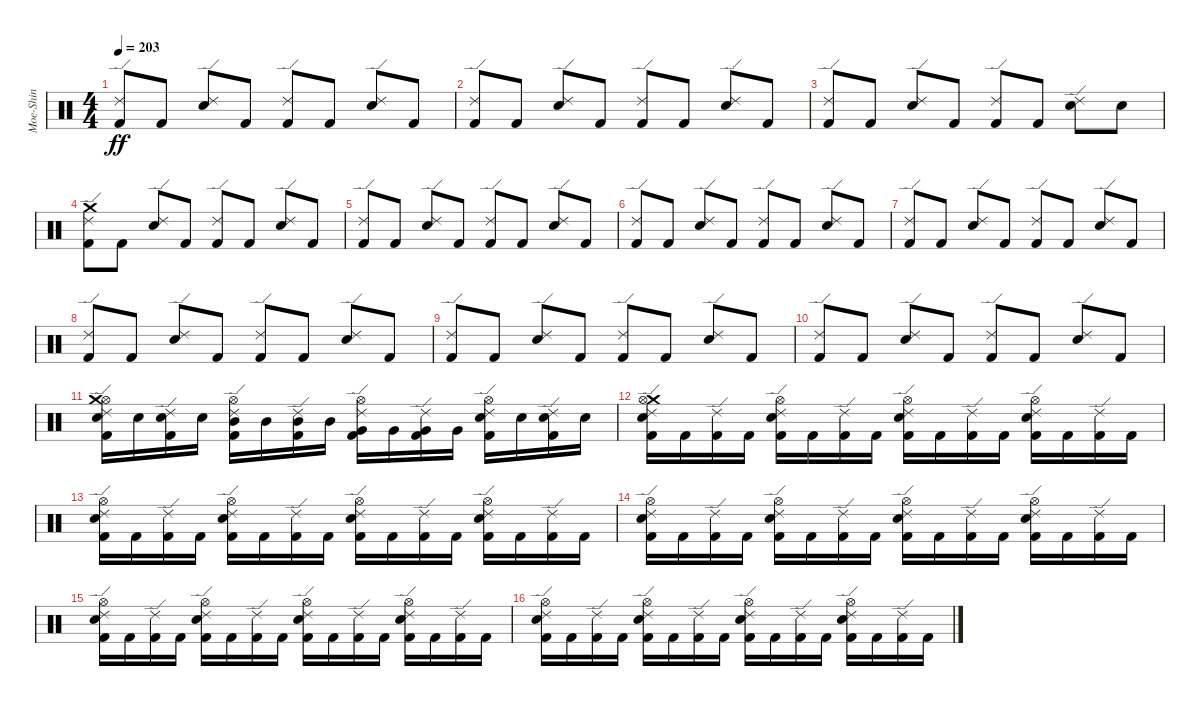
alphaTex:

\track ("Moe-Shin" "Moe-Shin") {instrument percussion}
\staff {score}
\articulation defaults
\ts (4 4)
\tempo 203
\clef neutral
\ks c
("Ride (edge) 2" "Kick (hit) 2").8{dy ff} "Kick (hit) 2".8 ("Ride (edge) 2" "Snare (hit) 2").8 "Kick (hit) 2".8 ("Ride (edge) 2" "Kick (hit) 2").8 "Kick (hit) 2".8 ("Snare (hit) 2" "Ride (edge) 2").8 "Kick (hit) 2".8 |
("Ride (edge) 2" "Kick (hit) 2").8 "Kick (hit) 2".8 ("Ride (edge) 2" "Snare (hit) 2").8 "Kick (hit) 2".8 ("Kick (hit) 2" "Ride (edge) 2").8 "Kick (hit) 2".8 ("Snare (hit) 2" "Ride (edge) 2").8 "Kick (hit) 2".8 |
("Ride (edge) 2" "Kick (hit) 2").8 "Kick (hit) 2".8 ("Snare (hit) 2" "Ride (edge) 2").8 "Kick (hit) 2".8 ("Ride (edge) 2" "Kick (hit) 2").8 "Kick (hit) 2".8 ("Snare (hit) 2" "Ride (edge) 2").8 "Snare (hit) 2".8 |
("Ride (edge) 2" "Crash medium (hit)" "Kick (hit) 2").8 "Kick (hit) 2".8 ("Ride (edge) 2" "Snare (hit) 2").8 "Kick (hit) 2".8 ("Ride (edge) 2" "Kick (hit) 2").8 "Kick (hit) 2".8 ("Snare (hit) 2" "Ride (edge) 2").8 "Kick (hit) 2".8 |
("Ride (edge) 2" "Kick (hit) 2").8 "Kick (hit) 2".8 ("Ride (edge) 2" "Snare (hit) 2").8 "Kick (hit) 2".8 ("Ride (edge) 2" "Kick (hit) 2").8 "Kick (hit) 2".8 ("Snare (hit) 2" "Ride (edge) 2").8 "Kick (hit) 2".8 |
("Ride (edge) 2" "Kick (hit) 2").8 "Kick (hit) 2".8 ("Snare (hit) 2" "Ride (edge) 2").8 "Kick (hit) 2".8 ("Kick (hit) 2" "Ride (edge) 2").8 "Kick (hit) 2".8 ("Ride (edge) 2" "Snare (hit) 2").8 "Kick (hit) 2".8 |
("Ride (edge) 2" "Kick (hit) 2").8 "Kick (hit) 2".8 ("Ride (edge) 2" "Snare (hit) 2").8 "Kick (hit) 2".8 ("Kick (hit) 2" "Ride (edge) 2").8 "Kick (hit) 2".8 ("Ride (edge) 2" "Snare (hit) 2").8 "Kick (hit) 2".8 |
("Kick (hit) 2" "Ride (edge) 2").8 "Kick (hit) 2".8 ("Ride (edge) 2" "Snare (hit) 2").8 "Kick (hit) 2".8 ("Kick (hit) 2" "Ride (edge) 2").8 "Kick (hit) 2".8 ("Snare (hit) 2" "Ride (edge) 2").8 "Kick (hit) 2".8 |
("Ride (edge) 2" "Kick (hit) 2").8 "Kick (hit) 2".8 ("Snare (hit) 2" "Ride (edge) 2").8 "Kick (hit) 2".8 ("Kick (hit) 2" "Ride (edge) 2").8 "Kick (hit) 2".8 ("Ride (edge) 2" "Snare (hit) 2").8 "Kick (hit) 2".8 |
("Ride (edge) 2" "Kick (hit) 2").8 "Kick (hit) 2".8 ("Snare (hit) 2" "Ride (edge) 2").8 "Kick (hit) 2".8 ("Ride (edge) 2" "Kick (hit) 2").8 "Kick (hit) 2".8 ("Snare (hit) 2" "Ride (edge) 2").8 "Kick (hit) 2".8 |
("Snare (hit) 2" "Hi-Hat (open)" "Ride (edge) 2" "Kick (hit) 2" "Crash medium (hit)").16 "Snare (hit) 2".16 ("Snare (hit) 2" "Kick (hit) 2" "Ride (edge) 2").16 "Snare (hit) 2".16 ("Kick (hit) 2" "Hi-Hat (open)" "Ride (edge) 2" "Mid Tom (hit)").16 "Mid Tom (hit)".16 ("Kick (hit) 2" "Mid Tom (hit)" "Ride (edge) 2").16 "Mid Tom (hit)".16 ("Hi-Hat (open)" "Kick (hit) 2" "Ride (edge) 2" "Very Low Tom (hit)").16 "Very Low Tom (hit)".16 ("Very Low Tom (hit)" "Ride (edge) 2" "Kick (hit) 2").16 "Very Low Tom (hit)".16 ("Snare (hit) 2" "Ride (edge) 2" "Kick (hit) 2" "Hi-Hat (open)").16 "Snare (hit) 2".16 ("Kick (hit) 2" "Snare (hit) 2" "Ride (edge) 2").16 "Snare (hit) 2".16 |
("Kick (hit) 2" "Crash medium (hit)" "Ride (edge) 2" "Snare (hit) 2" "Hi-Hat (open)").16 "Kick (hit) 2".16 ("Kick (hit) 2" "Ride (edge) 2").16 "Kick (hit) 2".16 ("Snare (hit) 2" "Ride (edge) 2" "Kick (hit) 2" "Hi-Hat (open)").16 "Kick (hit) 2".16 ("Ride (edge) 2" "Kick (hit) 2").16 "Kick (hit) 2".16 ("Snare (hit) 2" "Hi-Hat (open)" "Ride (edge) 2" "Kick (hit) 2").16 "Kick (hit) 2".16 ("Kick (hit) 2" "Ride (edge) 2").16 "Kick (hit) 2".16 ("Kick (hit) 2" "Hi-Hat (open)" "Ride (edge) 2" "Snare (hit) 2").16 "Kick (hit) 2".16 ("Ride (edge) 2" "Kick (hit) 2").16 "Kick (hit) 2".16 |
("Hi-Hat (open)" "Kick (hit) 2" "Snare (hit) 2" "Ride (edge) 2").16 "Kick (hit) 2".16 ("Kick (hit) 2" "Ride (edge) 2").16 "Kick (hit) 2".16 ("Hi-Hat (open)" "Ride (edge) 2" "Kick (hit) 2" "Snare (hit) 2").16 "Kick (hit) 2".16 ("Kick (hit) 2" "Ride (edge) 2").16 "Kick (hit) 2".16 ("Ride (edge) 2" "Hi-Hat (open)" "Snare (hit) 2" "Kick (hit) 2").16 "Kick (hit) 2".16 ("Kick (hit) 2" "Ride (edge) 2").16 "Kick (hit) 2".16 ("Snare (hit) 2" "Ride (edge) 2" "Kick (hit) 2" "Hi-Hat (open)").16 "Kick (hit) 2".16 ("Kick (hit) 2" "Ride (edge) 2").16 "Kick (hit) 2".16 |
("Hi-Hat (open)" "Kick (hit) 2" "Snare (hit) 2" "Ride (edge) 2").16 "Kick (hit) 2".16 ("Kick (hit) 2" "Ride (edge) 2").16 "Kick (hit) 2".16 ("Ride (edge) 2" "Hi-Hat (open)" "Kick (hit) 2" "Snare (hit) 2").16 "Kick (hit) 2".16 ("Kick (hit) 2" "Ride (edge) 2").16 "Kick (hit) 2".16 ("Ride (edge) 2" "Kick (hit) 2" "Snare (hit) 2" "Hi-Hat (open)").16 "Kick (hit) 2".16 ("Ride (edge) 2" "Kick (hit) 2").16 "Kick (hit) 2".16 ("Hi-Hat (open)" "Snare (hit) 2" "Kick (hit) 2" "Ride (edge) 2").16 "Kick (hit) 2".16 ("Kick (hit) 2" "Ride (edge) 2").16 "Kick (hit) 2".16 |
("Kick (hit) 2" "Ride (edge) 2" "Snare (hit) 2" "Hi-Hat (open)").16 "Kick (hit) 2".16 ("Ride (edge) 2" "Kick (hit) 2").16 "Kick (hit) 2".16 ("Snare (hit) 2" "Hi-Hat (open)" "Kick (hit) 2" "Ride (edge) 2").16 "Kick (hit) 2".16 ("Kick (hit) 2" "Ride (edge) 2").16 "Kick (hit) 2".16 ("Ride (edge) 2" "Hi-Hat (open)" "Snare (hit) 2" "Kick (hit) 2").16 "Kick (hit) 2".16 ("Kick (hit) 2" "Ride (edge) 2").16 "Kick (hit) 2".16 ("Ride (edge) 2" "Snare (hit) 2" "Hi-Hat (open)" "Kick (hit) 2").16 "Kick (hit) 2".16 ("Kick (hit) 2" "Ride (edge) 2").16 "Kick (hit) 2".16 |
("Hi-Hat (open)" "Kick (hit) 2" "Ride (edge) 2" "Snare (hit) 2").16 "Kick (hit) 2".16 ("Ride (edge) 2" "Kick (hit) 2").16 "Kick (hit) 2".16 ("Ride (edge) 2" "Hi-Hat (open)" "Kick (hit) 2" "Snare (hit) 2").16 "Kick (hit) 2".16 ("Ride (edge) 2" "Kick (hit) 2").16 "Kick (hit) 2".16 ("Snare (hit) 2" "Hi-Hat (open)" "Ride (edge) 2" "Kick (hit) 2").16 "Kick (hit) 2".16 ("Ride (edge) 2" "Kick (hit) 2").16 "Kick (hit) 2".16 ("Snare (hit) 2" "Hi-Hat (open)" "Kick (hit) 2" "Ride (edge) 2").16 "Kick (hit) 2".16 ("Kick (hit) 2" "Ride (edge) 2").16 "Kick (hit) 2".16
